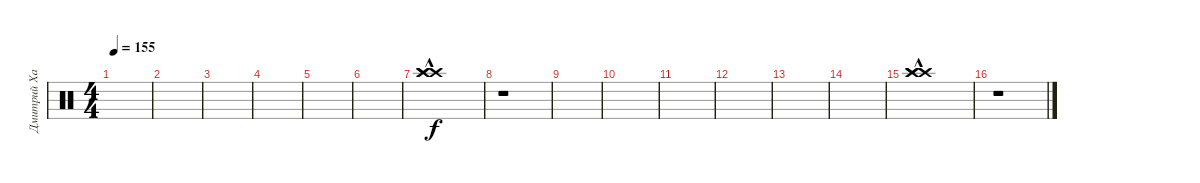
\track ("Дмитрий Хакимов" "Дмитрий Ха") {instrument percussion}
\staff {score}
\articulation defaults
\ts (4 4)
\tempo 155
\clef neutral
\ks c
|
|
|
|
|
|
("Crash high (hit)"{hac} "Crash high (hit)"{hac} "Crash high (hit)"{hac}).1 |
r.1 |
|
|
|
|
|
|
("Crash high (hit)"{hac} "Crash high (hit)"{hac} "Crash high (hit)"{hac}).1 |
r.1
